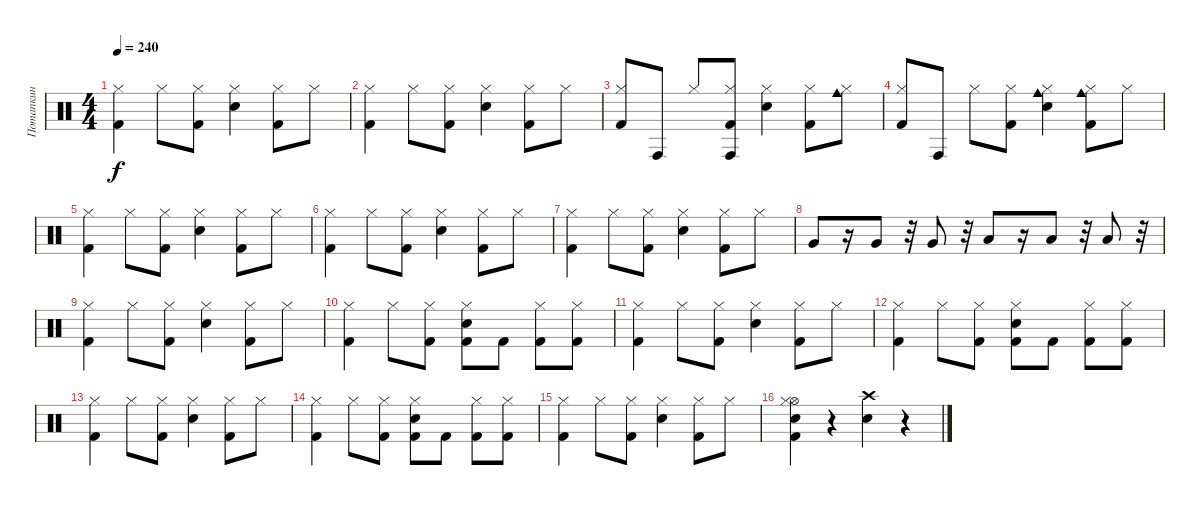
\track ("Потапкин" "Потапкин") {instrument percussion}
\staff {score}
\articulation defaults
\ts (4 4)
\tempo 240
\clef neutral
\ks c
("Hi-Hat (closed)" "Kick (hit) 2").4{dy f} "Hi-Hat (closed)".8 ("Hi-Hat (closed)" "Kick (hit) 2").8 ("Hi-Hat (closed)" "Electric Snare (hit)").4 ("Kick (hit) 2" "Hi-Hat (closed)").8 "Hi-Hat (closed)".8 |
("Hi-Hat (closed)" "Kick (hit) 2").4 "Hi-Hat (closed)".8 ("Hi-Hat (closed)" "Kick (hit) 2").8 ("Hi-Hat (closed)" "Electric Snare (hit)").4 ("Kick (hit) 2" "Hi-Hat (closed)").8 "Hi-Hat (closed)".8 |
("Hi-Hat (closed)" "Kick (hit) 2").8 "Conga high (hit)".8 "Hi-Hat (closed)".8 ("Hi-Hat (closed)" "Kick (hit) 2" "Conga high (hit)").8 ("Hi-Hat (closed)" "Electric Snare (hit)").4 ("Kick (hit) 2" "Hi-Hat (closed)").8 ("Hi-Hat (closed)" "Cowbell medium (hit)").8 |
("Hi-Hat (closed)" "Kick (hit) 2").8 "Conga high (hit)".8 "Hi-Hat (closed)".8 ("Hi-Hat (closed)" "Kick (hit) 2").8 ("Hi-Hat (closed)" "Electric Snare (hit)" "Cowbell medium (hit)").4 ("Kick (hit) 2" "Hi-Hat (closed)" "Cowbell medium (hit)").8 "Hi-Hat (closed)".8 |
("Hi-Hat (closed)" "Kick (hit) 2").4 "Hi-Hat (closed)".8 ("Hi-Hat (closed)" "Kick (hit) 2").8 ("Hi-Hat (closed)" "Electric Snare (hit)").4 ("Kick (hit) 2" "Hi-Hat (closed)").8 "Hi-Hat (closed)".8 |
("Hi-Hat (closed)" "Kick (hit) 2").4 "Hi-Hat (closed)".8 ("Hi-Hat (closed)" "Kick (hit) 2").8 ("Hi-Hat (closed)" "Electric Snare (hit)").4 ("Kick (hit) 2" "Hi-Hat (closed)").8 "Hi-Hat (closed)".8 |
("Hi-Hat (closed)" "Kick (hit) 2").4 "Hi-Hat (closed)".8 ("Hi-Hat (closed)" "Kick (hit) 2").8 ("Hi-Hat (closed)" "Electric Snare (hit)").4 ("Kick (hit) 2" "Hi-Hat (closed)").8 "Hi-Hat (closed)".8 |
"Very Low Tom (hit)".8 r.16 "Very Low Tom (hit)".8 r.32 "Very Low Tom (hit)".8 r.32 "Low Floor Tom (hit)".8 r.16 "Low Floor Tom (hit)".8 r.32 "Low Floor Tom (hit)".8 r.32 |
("Hi-Hat (closed)" "Kick (hit) 2").4 "Hi-Hat (closed)".8 ("Hi-Hat (closed)" "Kick (hit) 2").8 ("Hi-Hat (closed)" "Electric Snare (hit)").4 ("Kick (hit) 2" "Hi-Hat (closed)").8 "Hi-Hat (closed)".8 |
("Hi-Hat (closed)" "Kick (hit) 2").4 "Hi-Hat (closed)".8 ("Hi-Hat (closed)" "Kick (hit) 2").8 ("Kick (hit) 2" "Hi-Hat (closed)" "Electric Snare (hit)").8 "Kick (hit) 2".8 ("Kick (hit) 2" "Hi-Hat (closed)").8 ("Hi-Hat (closed)" "Kick (hit) 2").8 |
("Hi-Hat (closed)" "Kick (hit) 2").4 "Hi-Hat (closed)".8 ("Hi-Hat (closed)" "Kick (hit) 2").8 ("Hi-Hat (closed)" "Electric Snare (hit)").4 ("Kick (hit) 2" "Hi-Hat (closed)").8 "Hi-Hat (closed)".8 |
("Hi-Hat (closed)" "Kick (hit) 2").4 "Hi-Hat (closed)".8 ("Hi-Hat (closed)" "Kick (hit) 2").8 ("Kick (hit) 2" "Hi-Hat (closed)" "Electric Snare (hit)").8 "Kick (hit) 2".8 ("Kick (hit) 2" "Hi-Hat (closed)").8 ("Hi-Hat (closed)" "Kick (hit) 2").8 |
("Hi-Hat (closed)" "Kick (hit) 2").4 "Hi-Hat (closed)".8 ("Hi-Hat (closed)" "Kick (hit) 2").8 ("Hi-Hat (closed)" "Electric Snare (hit)").4 ("Kick (hit) 2" "Hi-Hat (closed)").8 "Hi-Hat (closed)".8 |
("Hi-Hat (closed)" "Kick (hit) 2").4 "Hi-Hat (closed)".8 ("Hi-Hat (closed)" "Kick (hit) 2").8 ("Kick (hit) 2" "Hi-Hat (closed)" "Electric Snare (hit)").8 "Kick (hit) 2".8 ("Kick (hit) 2" "Hi-Hat (closed)").8 ("Hi-Hat (closed)" "Kick (hit) 2").8 |
("Hi-Hat (closed)" "Kick (hit) 2").4 "Hi-Hat (closed)".8 ("Hi-Hat (closed)" "Kick (hit) 2").8 ("Hi-Hat (closed)" "Electric Snare (hit)").4 ("Kick (hit) 2" "Hi-Hat (closed)").8 "Hi-Hat (closed)".8 |
("Hi-Hat (open)" "Hi-Hat (closed)" "Kick (hit) 2" "Electric Snare (hit)").4 r.4 ("Crash high (hit)" "Snare (hit) 2").4 r.4
